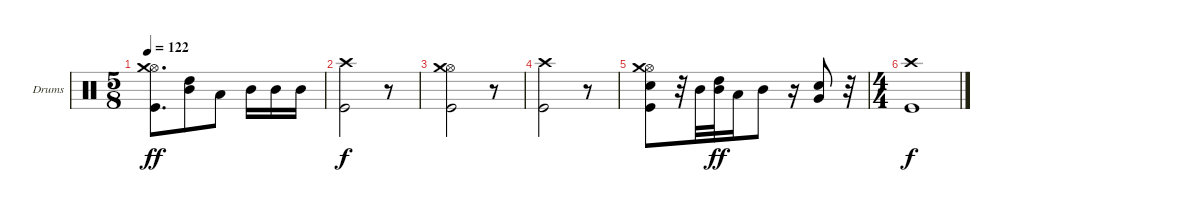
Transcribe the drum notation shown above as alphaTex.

\defaultSystemsLayout 4
\bracketExtendMode groupsimilarinstruments
\firstSystemTrackNameOrientation horizontal
\otherSystemsTrackNameOrientation horizontal
\track ("Drumkit" "Drums") {instrument percussion}
\staff {score}
\articulation defaults
\ts (5 8)
\tempo 122
\clef neutral
\ks c
("Hi-Hat (open)" "Crash medium (hit)" "Kick (hit)").8{d dy ff} ("Mid Tom (hit)" "High Tom (hit)").8 "Low Tom (hit)".8 "Mid Tom (hit)".16 "Mid Tom (hit)".16 "Mid Tom (hit)".16 |
("Kick (hit)" "Crash high (hit)").2{dy f} r.8 |
("Hi-Hat (open)" "Crash medium (hit)" "Kick (hit)").2 r.8 |
("Kick (hit)" "Crash high (hit)").2 r.8 |
("Hi-Hat (open)" "Crash medium (hit)" "Kick (hit)" "Snare (hit) 2").8 r.32 "Mid Tom (hit)".32 ("Mid Tom (hit)" "High Tom (hit)").32{dy ff} "Low Tom (hit)".16 "Mid Tom (hit)".8 r.16 ("Snare (hit) 2" "Very Low Tom (hit)").8 r.32 |
\ts (4 4)
("Kick (hit)" "Crash high (hit)").1{dy f}
